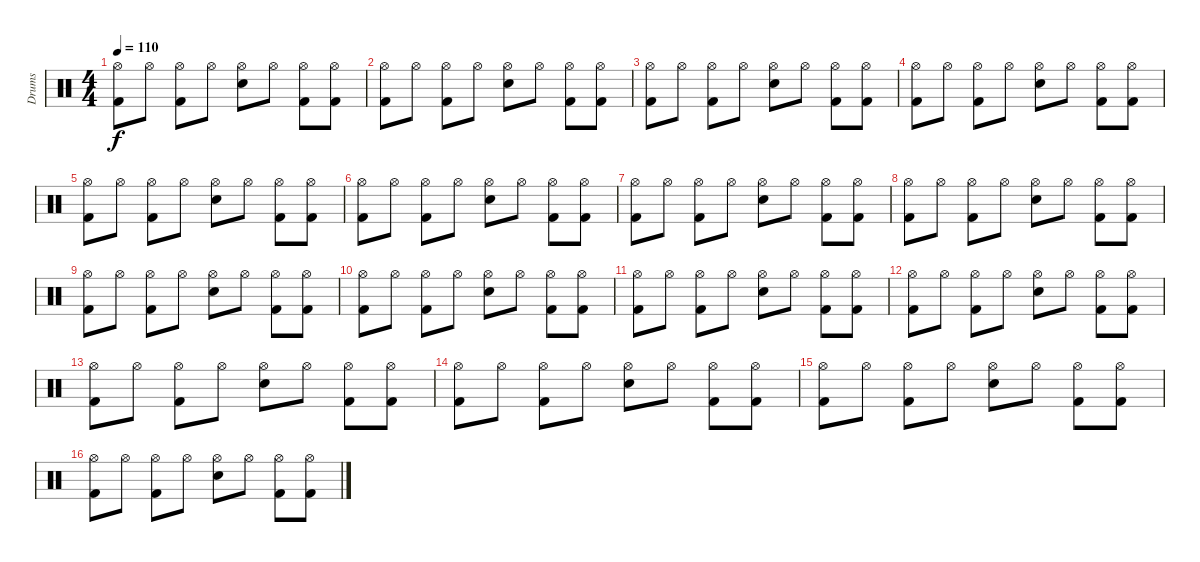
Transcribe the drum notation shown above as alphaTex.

\track ("Drums" "Drums") {instrument percussion}
\staff {score}
\articulation defaults
\ts (4 4)
\tempo 110
\clef neutral
\ks c
("Hi-Hat (open)" "Kick (hit) 2").8{dy f} "Hi-Hat (open)".8 ("Hi-Hat (open)" "Kick (hit) 2").8 "Hi-Hat (open)".8 ("Hi-Hat (open)" "Electric Snare (hit)").8 "Hi-Hat (open)".8 ("Hi-Hat (open)" "Kick (hit) 2").8 ("Hi-Hat (open)" "Kick (hit) 2").8 |
("Hi-Hat (open)" "Kick (hit) 2").8 "Hi-Hat (open)".8 ("Hi-Hat (open)" "Kick (hit) 2").8 "Hi-Hat (open)".8 ("Hi-Hat (open)" "Electric Snare (hit)").8 "Hi-Hat (open)".8 ("Hi-Hat (open)" "Kick (hit) 2").8 ("Hi-Hat (open)" "Kick (hit) 2").8 |
("Hi-Hat (open)" "Kick (hit) 2").8 "Hi-Hat (open)".8 ("Hi-Hat (open)" "Kick (hit) 2").8 "Hi-Hat (open)".8 ("Hi-Hat (open)" "Electric Snare (hit)").8 "Hi-Hat (open)".8 ("Hi-Hat (open)" "Kick (hit) 2").8 ("Hi-Hat (open)" "Kick (hit) 2").8 |
("Hi-Hat (open)" "Kick (hit) 2").8 "Hi-Hat (open)".8 ("Hi-Hat (open)" "Kick (hit) 2").8 "Hi-Hat (open)".8 ("Hi-Hat (open)" "Electric Snare (hit)").8 "Hi-Hat (open)".8 ("Hi-Hat (open)" "Kick (hit) 2").8 ("Hi-Hat (open)" "Kick (hit) 2").8 |
("Hi-Hat (open)" "Kick (hit) 2").8 "Hi-Hat (open)".8 ("Hi-Hat (open)" "Kick (hit) 2").8 "Hi-Hat (open)".8 ("Hi-Hat (open)" "Electric Snare (hit)").8 "Hi-Hat (open)".8 ("Hi-Hat (open)" "Kick (hit) 2").8 ("Hi-Hat (open)" "Kick (hit) 2").8 |
("Hi-Hat (open)" "Kick (hit) 2").8 "Hi-Hat (open)".8 ("Hi-Hat (open)" "Kick (hit) 2").8 "Hi-Hat (open)".8 ("Hi-Hat (open)" "Electric Snare (hit)").8 "Hi-Hat (open)".8 ("Hi-Hat (open)" "Kick (hit) 2").8 ("Hi-Hat (open)" "Kick (hit) 2").8 |
("Hi-Hat (open)" "Kick (hit) 2").8 "Hi-Hat (open)".8 ("Hi-Hat (open)" "Kick (hit) 2").8 "Hi-Hat (open)".8 ("Hi-Hat (open)" "Electric Snare (hit)").8 "Hi-Hat (open)".8 ("Hi-Hat (open)" "Kick (hit) 2").8 ("Hi-Hat (open)" "Kick (hit) 2").8 |
("Hi-Hat (open)" "Kick (hit) 2").8 "Hi-Hat (open)".8 ("Hi-Hat (open)" "Kick (hit) 2").8 "Hi-Hat (open)".8 ("Hi-Hat (open)" "Electric Snare (hit)").8 "Hi-Hat (open)".8 ("Hi-Hat (open)" "Kick (hit) 2").8 ("Hi-Hat (open)" "Kick (hit) 2").8 |
("Hi-Hat (open)" "Kick (hit) 2").8 "Hi-Hat (open)".8 ("Hi-Hat (open)" "Kick (hit) 2").8 "Hi-Hat (open)".8 ("Hi-Hat (open)" "Electric Snare (hit)").8 "Hi-Hat (open)".8 ("Hi-Hat (open)" "Kick (hit) 2").8 ("Hi-Hat (open)" "Kick (hit) 2").8 |
("Hi-Hat (open)" "Kick (hit) 2").8 "Hi-Hat (open)".8 ("Hi-Hat (open)" "Kick (hit) 2").8 "Hi-Hat (open)".8 ("Hi-Hat (open)" "Electric Snare (hit)").8 "Hi-Hat (open)".8 ("Hi-Hat (open)" "Kick (hit) 2").8 ("Hi-Hat (open)" "Kick (hit) 2").8 |
("Hi-Hat (open)" "Kick (hit) 2").8 "Hi-Hat (open)".8 ("Hi-Hat (open)" "Kick (hit) 2").8 "Hi-Hat (open)".8 ("Hi-Hat (open)" "Electric Snare (hit)").8 "Hi-Hat (open)".8 ("Hi-Hat (open)" "Kick (hit) 2").8 ("Hi-Hat (open)" "Kick (hit) 2").8 |
("Hi-Hat (open)" "Kick (hit) 2").8 "Hi-Hat (open)".8 ("Hi-Hat (open)" "Kick (hit) 2").8 "Hi-Hat (open)".8 ("Hi-Hat (open)" "Electric Snare (hit)").8 "Hi-Hat (open)".8 ("Hi-Hat (open)" "Kick (hit) 2").8 ("Hi-Hat (open)" "Kick (hit) 2").8 |
("Hi-Hat (open)" "Kick (hit) 2").8 "Hi-Hat (open)".8 ("Hi-Hat (open)" "Kick (hit) 2").8 "Hi-Hat (open)".8 ("Hi-Hat (open)" "Electric Snare (hit)").8 "Hi-Hat (open)".8 ("Hi-Hat (open)" "Kick (hit) 2").8 ("Hi-Hat (open)" "Kick (hit) 2").8 |
("Hi-Hat (open)" "Kick (hit) 2").8 "Hi-Hat (open)".8 ("Hi-Hat (open)" "Kick (hit) 2").8 "Hi-Hat (open)".8 ("Hi-Hat (open)" "Electric Snare (hit)").8 "Hi-Hat (open)".8 ("Hi-Hat (open)" "Kick (hit) 2").8 ("Hi-Hat (open)" "Kick (hit) 2").8 |
("Hi-Hat (open)" "Kick (hit) 2").8 "Hi-Hat (open)".8 ("Hi-Hat (open)" "Kick (hit) 2").8 "Hi-Hat (open)".8 ("Hi-Hat (open)" "Electric Snare (hit)").8 "Hi-Hat (open)".8 ("Hi-Hat (open)" "Kick (hit) 2").8 ("Hi-Hat (open)" "Kick (hit) 2").8 |
("Hi-Hat (open)" "Kick (hit) 2").8 "Hi-Hat (open)".8 ("Hi-Hat (open)" "Kick (hit) 2").8 "Hi-Hat (open)".8 ("Hi-Hat (open)" "Electric Snare (hit)").8 "Hi-Hat (open)".8 ("Hi-Hat (open)" "Kick (hit) 2").8 ("Hi-Hat (open)" "Kick (hit) 2").8
